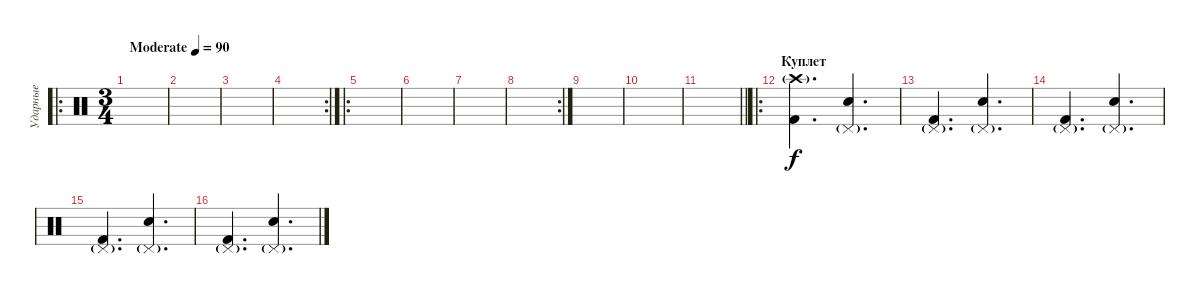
\track ("Ударные" "Ударные") {instrument percussion}
\staff {score}
\articulation defaults
\ro
\ts (3 4)
\tempo (90 "Moderate")
\clef neutral
\ks c
|
|
|
\rc 2
|
\ro
|
|
|
\rc 2
|
|
|
\barLineRight lightlight
|
\ro
\section ("" "Куплет")
("Kick (hit) 2" "Crash high (hit)"{g}).4{d} ("Electric Snare (hit)" "Pedal Hi-Hat (hit)"{g}).4{d} |
("Kick (hit) 2" "Pedal Hi-Hat (hit)"{g}).4{d} ("Electric Snare (hit)" "Pedal Hi-Hat (hit)"{g}).4{d} |
("Kick (hit) 2" "Pedal Hi-Hat (hit)"{g}).4{d} ("Electric Snare (hit)" "Pedal Hi-Hat (hit)"{g}).4{d} |
("Kick (hit) 2" "Pedal Hi-Hat (hit)"{g}).4{d} ("Electric Snare (hit)" "Pedal Hi-Hat (hit)"{g}).4{d} |
("Kick (hit) 2" "Pedal Hi-Hat (hit)"{g}).4{d} ("Electric Snare (hit)" "Pedal Hi-Hat (hit)"{g}).4{d}
